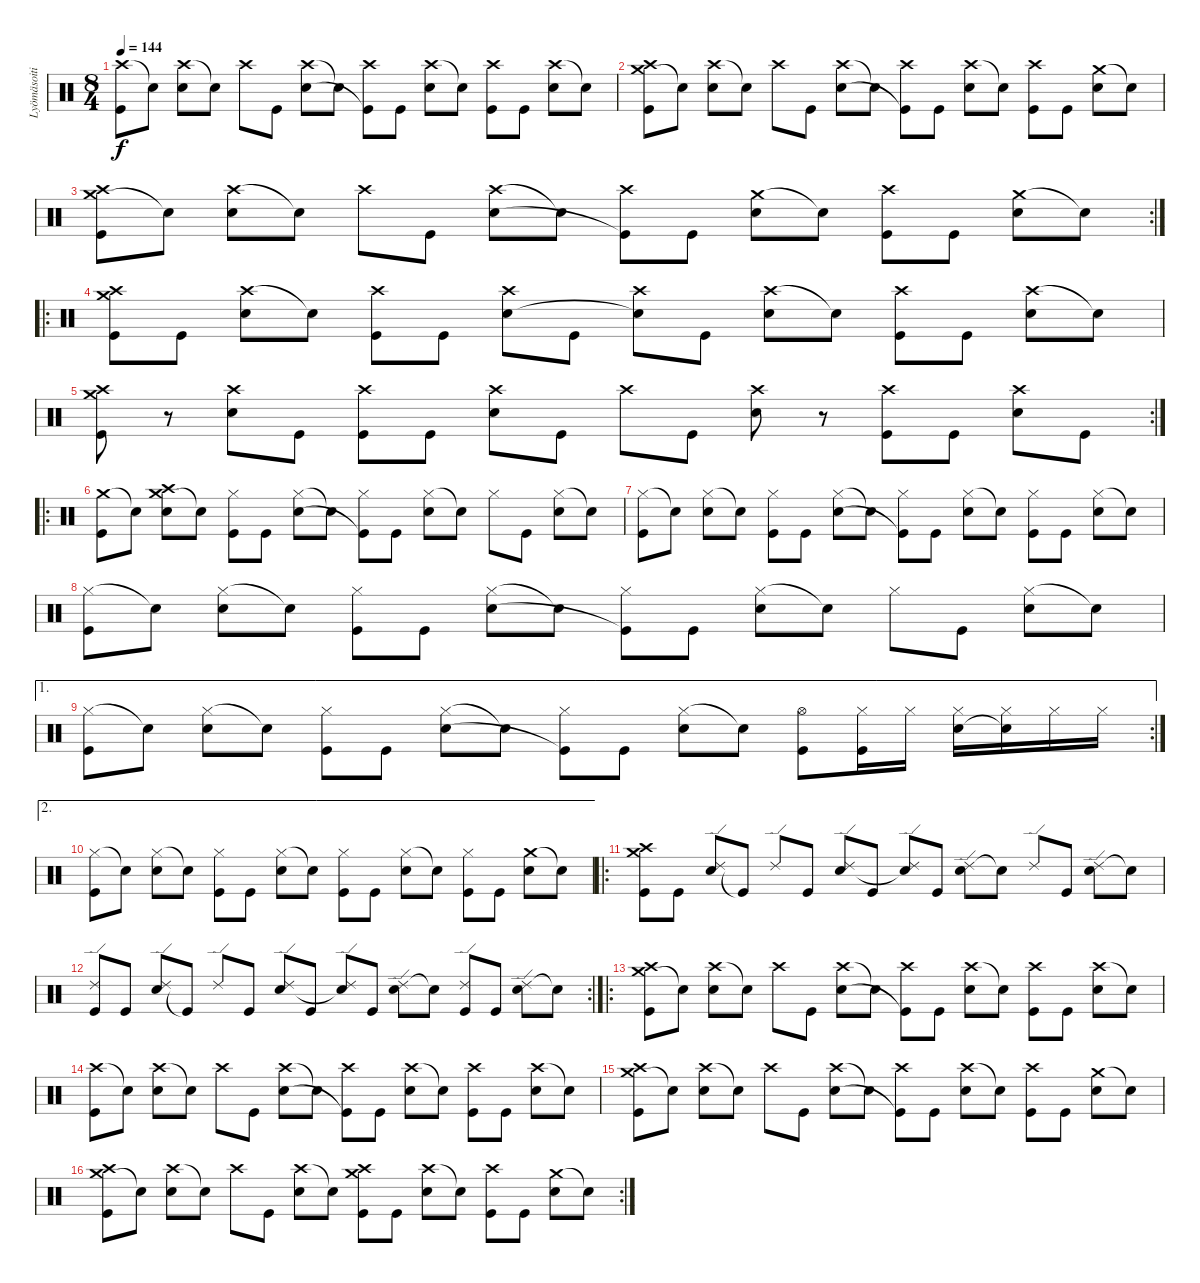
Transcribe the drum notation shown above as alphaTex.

\track ("Lyömäsoitin" "Lyömäsoiti") {instrument percussion}
\staff {score}
\articulation defaults
\ts (8 4)
\tempo 144
\clef neutral
\ks c
("Crash high (hit)" "Kick (hit)").8{dy f} "Snare (hit)"{t}.8 ("Crash high (hit)" "Snare (hit) 2").8 "Snare (hit)"{t}.8 "Crash high (hit)".8 "Kick (hit)".8 ("Crash high (hit)" "Snare (hit) 2").8 "Snare (hit)"{t}.8 ("Crash high (hit)" "Kick (hit)"{t}).8 "Kick (hit)".8 ("Crash high (hit)" "Snare (hit) 2").8 "Snare (hit)"{t}.8 ("Crash high (hit)" "Kick (hit)").8 "Kick (hit)".8 ("Crash high (hit)" "Snare (hit) 2").8 "Snare (hit)"{t}.8 |
("Crash medium (hit)" "Crash high (hit)" "Kick (hit)").8 "Snare (hit)"{t}.8 ("Crash high (hit)" "Snare (hit) 2").8 "Snare (hit)"{t}.8 "Crash high (hit)".8 "Kick (hit)".8 ("Crash high (hit)" "Snare (hit) 2").8 "Snare (hit)"{t}.8 ("Crash high (hit)" "Kick (hit)"{t}).8 "Kick (hit)".8 ("Crash high (hit)" "Snare (hit) 2").8 "Snare (hit)"{t}.8 ("Crash high (hit)" "Kick (hit)").8 "Kick (hit)".8 ("Crash medium (hit)" "Snare (hit) 2").8 "Snare (hit)"{t}.8 |
\rc 2
("Crash medium (hit)" "Crash high (hit)" "Kick (hit)").8 "Snare (hit)"{t}.8 ("Crash high (hit)" "Snare (hit) 2").8 "Snare (hit)"{t}.8 "Crash high (hit)".8 "Kick (hit)".8 ("Crash high (hit)" "Snare (hit) 2").8 "Snare (hit)"{t}.8 ("Crash high (hit)" "Kick (hit)"{t}).8 "Kick (hit)".8 ("Crash medium (hit)" "Snare (hit) 2").8 "Snare (hit)"{t}.8 ("Crash high (hit)" "Kick (hit)").8 "Kick (hit)".8 ("Crash medium (hit)" "Snare (hit) 2").8 "Snare (hit)"{t}.8 |
\ro
("Crash medium (hit)" "Crash high (hit)" "Kick (hit)").8 "Kick (hit)".8 ("Crash high (hit)" "Snare (hit) 2").8 "Snare (hit)"{t}.8 ("Crash high (hit)" "Kick (hit)").8 "Kick (hit)".8 ("Crash high (hit)" "Snare (hit) 2").8 "Kick (hit)".8 ("Crash high (hit)" "Snare (hit)"{t}).8 "Kick (hit)".8 ("Crash high (hit)" "Snare (hit) 2").8 "Snare (hit)"{t}.8 ("Crash high (hit)" "Kick (hit)").8 "Kick (hit)".8 ("Crash high (hit)" "Snare (hit) 2").8 "Snare (hit)"{t}.8 |
\rc 2
("Crash medium (hit)" "Crash high (hit)" "Kick (hit)").8 r.8 ("Crash high (hit)" "Snare (hit) 2").8 "Kick (hit)".8 ("Crash high (hit)" "Kick (hit)").8 "Kick (hit)".8 ("Crash high (hit)" "Snare (hit) 2").8 "Kick (hit)".8 "Crash high (hit)".8 "Kick (hit)".8 ("Crash high (hit)" "Snare (hit) 2").8 r.8 ("Crash high (hit)" "Kick (hit)").8 "Kick (hit)".8 ("Crash high (hit)" "Snare (hit) 2").8 "Kick (hit)".8 |
\ro
("Crash medium (hit)" "Kick (hit)").8 "Snare (hit)"{t}.8 ("Crash medium (hit)" "Crash high (hit)" "Snare (hit) 2").8 "Snare (hit)"{t}.8 ("Hi-Hat (closed)" "Kick (hit)").8 "Kick (hit)".8 ("Hi-Hat (closed)" "Snare (hit) 2").8 "Snare (hit)"{t}.8 ("Hi-Hat (closed)" "Kick (hit)"{t}).8 "Kick (hit)".8 ("Hi-Hat (closed)" "Snare (hit) 2").8 "Snare (hit)"{t}.8 "Hi-Hat (closed)".8 "Kick (hit)".8 ("Hi-Hat (closed)" "Snare (hit) 2").8 "Snare (hit)"{t}.8 |
("Hi-Hat (closed)" "Kick (hit)").8 "Snare (hit)"{t}.8 ("Hi-Hat (closed)" "Snare (hit) 2").8 "Snare (hit)"{t}.8 ("Hi-Hat (closed)" "Kick (hit)").8 "Kick (hit)".8 ("Hi-Hat (closed)" "Snare (hit) 2").8 "Snare (hit)"{t}.8 ("Hi-Hat (closed)" "Kick (hit)"{t}).8 "Kick (hit)".8 ("Hi-Hat (closed)" "Snare (hit) 2").8 "Snare (hit)"{t}.8 ("Hi-Hat (closed)" "Kick (hit)").8 "Kick (hit)".8 ("Hi-Hat (closed)" "Snare (hit) 2").8 "Snare (hit)"{t}.8 |
("Hi-Hat (closed)" "Kick (hit)").8 "Snare (hit)"{t}.8 ("Hi-Hat (closed)" "Snare (hit) 2").8 "Snare (hit)"{t}.8 ("Hi-Hat (closed)" "Kick (hit)").8 "Kick (hit)".8 ("Hi-Hat (closed)" "Snare (hit) 2").8 "Snare (hit)"{t}.8 ("Hi-Hat (closed)" "Kick (hit)"{t}).8 "Kick (hit)".8 ("Hi-Hat (closed)" "Snare (hit) 2").8 "Snare (hit)"{t}.8 "Hi-Hat (closed)".8 "Kick (hit)".8 ("Hi-Hat (closed)" "Snare (hit) 2").8 "Snare (hit)"{t}.8 |
\ae 1
\rc 2
("Hi-Hat (closed)" "Kick (hit)").8 "Snare (hit)"{t}.8 ("Hi-Hat (closed)" "Snare (hit) 2").8 "Snare (hit)"{t}.8 ("Hi-Hat (closed)" "Kick (hit)").8 "Kick (hit)".8 ("Hi-Hat (closed)" "Snare (hit) 2").8 "Snare (hit)"{t}.8 ("Hi-Hat (closed)" "Kick (hit)"{t}).8 "Kick (hit)".8 ("Hi-Hat (closed)" "Snare (hit) 2").8 "Snare (hit)"{t}.8 ("Hi-Hat (open)" "Kick (hit)").8 ("Hi-Hat (closed)" "Kick (hit)").16 "Hi-Hat (closed)".16 ("Hi-Hat (closed)" "Snare (hit) 2").16 ("Hi-Hat (closed)" "Snare (hit)"{t}).16 "Hi-Hat (closed)".16 "Hi-Hat (closed)".16 |
\ae 2
("Hi-Hat (closed)" "Kick (hit)").8 "Snare (hit)"{t}.8 ("Hi-Hat (closed)" "Snare (hit) 2").8 "Snare (hit)"{t}.8 ("Hi-Hat (closed)" "Kick (hit)").8 "Kick (hit)".8 ("Hi-Hat (closed)" "Snare (hit) 2").8 "Snare (hit)"{t}.8 ("Hi-Hat (closed)" "Kick (hit)").8 "Kick (hit)".8 ("Hi-Hat (closed)" "Snare (hit) 2").8 "Snare (hit)"{t}.8 ("Hi-Hat (closed)" "Kick (hit)").8 "Kick (hit)".8 ("Crash medium (hit)" "Snare (hit) 2").8 "Snare (hit)"{t}.8 |
\ro
("Crash medium (hit)" "Crash high (hit)" "Kick (hit)").8 "Kick (hit)".8 ("Ride (edge) 2" "Snare (hit) 2").8 "Kick (hit)"{t}.8 "Ride (edge) 2".8 "Kick (hit)".8 ("Ride (edge) 2" "Snare (hit) 2").8 "Kick (hit)".8 ("Ride (edge) 2" "Snare (hit)"{t}).8 "Kick (hit)".8 ("Ride (edge) 2" "Snare (hit) 2").8 "Snare (hit)"{t}.8 "Ride (edge) 2".8 "Kick (hit)".8 ("Ride (edge) 2" "Snare (hit) 2").8 "Snare (hit)"{t}.8 |
\rc 2
("Ride (edge) 2" "Kick (hit)").8 "Kick (hit)".8 ("Ride (edge) 2" "Snare (hit) 2").8 "Kick (hit)"{t}.8 "Ride (edge) 2".8 "Kick (hit)".8 ("Ride (edge) 2" "Snare (hit) 2").8 "Kick (hit)".8 ("Ride (edge) 2" "Snare (hit)"{t}).8 "Kick (hit)".8 ("Ride (edge) 2" "Snare (hit) 2").8 "Snare (hit)"{t}.8 ("Ride (edge) 2" "Kick (hit)").8 "Kick (hit)".8 ("Ride (edge) 2" "Snare (hit) 2").8 "Snare (hit)"{t}.8 |
\ro
("Crash medium (hit)" "Crash high (hit)" "Kick (hit)").8 "Snare (hit)"{t}.8 ("Crash high (hit)" "Snare (hit) 2").8 "Snare (hit)"{t}.8 "Crash high (hit)".8 "Kick (hit)".8 ("Crash high (hit)" "Snare (hit) 2").8 "Snare (hit)"{t}.8 ("Crash high (hit)" "Kick (hit)"{t}).8 "Kick (hit)".8 ("Crash high (hit)" "Snare (hit) 2").8 "Snare (hit)"{t}.8 ("Crash high (hit)" "Kick (hit)").8 "Kick (hit)".8 ("Crash high (hit)" "Snare (hit) 2").8 "Snare (hit)"{t}.8 |
("Crash high (hit)" "Kick (hit)").8 "Snare (hit)"{t}.8 ("Crash high (hit)" "Snare (hit) 2").8 "Snare (hit)"{t}.8 "Crash high (hit)".8 "Kick (hit)".8 ("Crash high (hit)" "Snare (hit) 2").8 "Snare (hit)"{t}.8 ("Crash high (hit)" "Kick (hit)"{t}).8 "Kick (hit)".8 ("Crash high (hit)" "Snare (hit) 2").8 "Snare (hit)"{t}.8 ("Crash high (hit)" "Kick (hit)").8 "Kick (hit)".8 ("Crash high (hit)" "Snare (hit) 2").8 "Snare (hit)"{t}.8 |
("Crash medium (hit)" "Crash high (hit)" "Kick (hit)").8 "Snare (hit)"{t}.8 ("Crash high (hit)" "Snare (hit) 2").8 "Snare (hit)"{t}.8 "Crash high (hit)".8 "Kick (hit)".8 ("Crash high (hit)" "Snare (hit) 2").8 "Snare (hit)"{t}.8 ("Crash high (hit)" "Kick (hit)"{t}).8 "Kick (hit)".8 ("Crash high (hit)" "Snare (hit) 2").8 "Snare (hit)"{t}.8 ("Crash high (hit)" "Kick (hit)").8 "Kick (hit)".8 ("Crash medium (hit)" "Snare (hit) 2").8 "Snare (hit)"{t}.8 |
\rc 2
("Crash medium (hit)" "Crash high (hit)" "Kick (hit)").8 "Snare (hit)"{t}.8 ("Crash high (hit)" "Snare (hit) 2").8 "Snare (hit)"{t}.8 "Crash high (hit)".8 "Kick (hit)".8 ("Crash high (hit)" "Snare (hit) 2").8 "Snare (hit)"{t}.8 ("Crash medium (hit)" "Crash high (hit)" "Kick (hit)").8 "Kick (hit)".8 ("Crash high (hit)" "Snare (hit) 2").8 "Snare (hit)"{t}.8 ("Crash high (hit)" "Kick (hit)").8 "Kick (hit)".8 ("Crash medium (hit)" "Snare (hit) 2").8 "Snare (hit)"{t}.8
